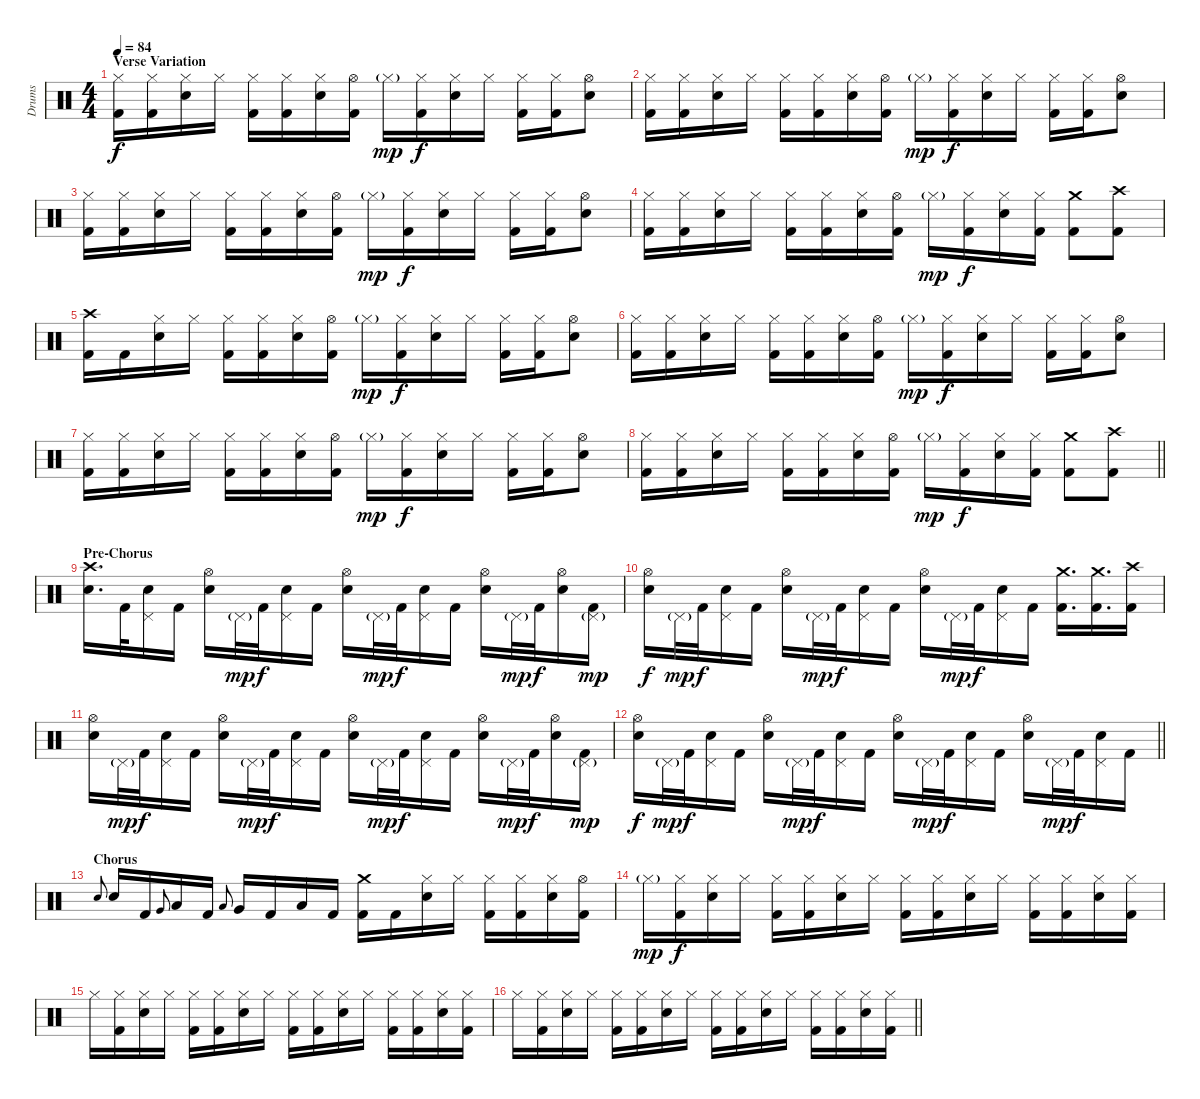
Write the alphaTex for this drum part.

\track ("Drums" "Drums") {instrument percussion}
\staff {score}
\articulation defaults
\ts (4 4)
\section ("" "Verse Variation")
\tempo 84
\clef neutral
\ks c
("Hi-Hat (closed)" "Kick (hit) 2").16{dy f} ("Hi-Hat (closed)" "Kick (hit) 2").16 ("Hi-Hat (closed)" "Snare (hit) 2").16 "Hi-Hat (closed)".16 ("Hi-Hat (closed)" "Kick (hit) 2").16 ("Hi-Hat (closed)" "Kick (hit) 2").16 ("Hi-Hat (closed)" "Snare (hit) 2").16 ("Hi-Hat (open)" "Kick (hit) 2").16 "Hi-Hat (closed)"{g}.16{dy mp} ("Hi-Hat (closed)" "Kick (hit) 2").16{dy f} ("Hi-Hat (closed)" "Snare (hit) 2").16 "Hi-Hat (closed)".16 ("Hi-Hat (closed)" "Kick (hit) 2").16 ("Hi-Hat (closed)" "Kick (hit) 2").16 ("Hi-Hat (open)" "Snare (hit) 2").8 |
("Hi-Hat (closed)" "Kick (hit) 2").16 ("Hi-Hat (closed)" "Kick (hit) 2").16 ("Hi-Hat (closed)" "Snare (hit) 2").16 "Hi-Hat (closed)".16 ("Hi-Hat (closed)" "Kick (hit) 2").16 ("Hi-Hat (closed)" "Kick (hit) 2").16 ("Hi-Hat (closed)" "Snare (hit) 2").16 ("Hi-Hat (open)" "Kick (hit) 2").16 "Hi-Hat (closed)"{g}.16{dy mp} ("Hi-Hat (closed)" "Kick (hit) 2").16{dy f} ("Hi-Hat (closed)" "Snare (hit) 2").16 "Hi-Hat (closed)".16 ("Hi-Hat (closed)" "Kick (hit) 2").16 ("Hi-Hat (closed)" "Kick (hit) 2").16 ("Hi-Hat (open)" "Snare (hit) 2").8 |
("Hi-Hat (closed)" "Kick (hit) 2").16 ("Hi-Hat (closed)" "Kick (hit) 2").16 ("Hi-Hat (closed)" "Snare (hit) 2").16 "Hi-Hat (closed)".16 ("Hi-Hat (closed)" "Kick (hit) 2").16 ("Hi-Hat (closed)" "Kick (hit) 2").16 ("Hi-Hat (closed)" "Snare (hit) 2").16 ("Hi-Hat (open)" "Kick (hit) 2").16 "Hi-Hat (closed)"{g}.16{dy mp} ("Hi-Hat (closed)" "Kick (hit) 2").16{dy f} ("Hi-Hat (closed)" "Snare (hit) 2").16 "Hi-Hat (closed)".16 ("Hi-Hat (closed)" "Kick (hit) 2").16 ("Hi-Hat (closed)" "Kick (hit) 2").16 ("Hi-Hat (open)" "Snare (hit) 2").8 |
("Hi-Hat (closed)" "Kick (hit) 2").16 ("Hi-Hat (closed)" "Kick (hit) 2").16 ("Hi-Hat (closed)" "Snare (hit) 2").16 "Hi-Hat (closed)".16 ("Hi-Hat (closed)" "Kick (hit) 2").16 ("Hi-Hat (closed)" "Kick (hit) 2").16 ("Hi-Hat (closed)" "Snare (hit) 2").16 ("Hi-Hat (open)" "Kick (hit) 2").16 "Hi-Hat (closed)"{g}.16{dy mp} ("Hi-Hat (closed)" "Kick (hit) 2").16{dy f} ("Hi-Hat (closed)" "Snare (hit) 2").16 ("Hi-Hat (closed)" "Kick (hit) 2").16 ("Crash medium (hit)" "Kick (hit) 2").8 ("Crash high (hit)" "Kick (hit) 2").8 |
("Crash high (hit)" "Kick (hit) 2").16 "Kick (hit) 2".16 ("Hi-Hat (closed)" "Snare (hit) 2").16 "Hi-Hat (closed)".16 ("Hi-Hat (closed)" "Kick (hit) 2").16 ("Hi-Hat (closed)" "Kick (hit) 2").16 ("Hi-Hat (closed)" "Snare (hit) 2").16 ("Hi-Hat (open)" "Kick (hit) 2").16 "Hi-Hat (closed)"{g}.16{dy mp} ("Hi-Hat (closed)" "Kick (hit) 2").16{dy f} ("Hi-Hat (closed)" "Snare (hit) 2").16 "Hi-Hat (closed)".16 ("Hi-Hat (closed)" "Kick (hit) 2").16 ("Hi-Hat (closed)" "Kick (hit) 2").16 ("Hi-Hat (open)" "Snare (hit) 2").8 |
("Hi-Hat (closed)" "Kick (hit) 2").16 ("Hi-Hat (closed)" "Kick (hit) 2").16 ("Hi-Hat (closed)" "Snare (hit) 2").16 "Hi-Hat (closed)".16 ("Hi-Hat (closed)" "Kick (hit) 2").16 ("Hi-Hat (closed)" "Kick (hit) 2").16 ("Hi-Hat (closed)" "Snare (hit) 2").16 ("Hi-Hat (open)" "Kick (hit) 2").16 "Hi-Hat (closed)"{g}.16{dy mp} ("Hi-Hat (closed)" "Kick (hit) 2").16{dy f} ("Hi-Hat (closed)" "Snare (hit) 2").16 "Hi-Hat (closed)".16 ("Hi-Hat (closed)" "Kick (hit) 2").16 ("Hi-Hat (closed)" "Kick (hit) 2").16 ("Hi-Hat (open)" "Snare (hit) 2").8 |
("Hi-Hat (closed)" "Kick (hit) 2").16 ("Hi-Hat (closed)" "Kick (hit) 2").16 ("Hi-Hat (closed)" "Snare (hit) 2").16 "Hi-Hat (closed)".16 ("Hi-Hat (closed)" "Kick (hit) 2").16 ("Hi-Hat (closed)" "Kick (hit) 2").16 ("Hi-Hat (closed)" "Snare (hit) 2").16 ("Hi-Hat (open)" "Kick (hit) 2").16 "Hi-Hat (closed)"{g}.16{dy mp} ("Hi-Hat (closed)" "Kick (hit) 2").16{dy f} ("Hi-Hat (closed)" "Snare (hit) 2").16 "Hi-Hat (closed)".16 ("Hi-Hat (closed)" "Kick (hit) 2").16 ("Hi-Hat (closed)" "Kick (hit) 2").16 ("Hi-Hat (open)" "Snare (hit) 2").8 |
\barLineRight lightlight
("Hi-Hat (closed)" "Kick (hit) 2").16 ("Hi-Hat (closed)" "Kick (hit) 2").16 ("Hi-Hat (closed)" "Snare (hit) 2").16 "Hi-Hat (closed)".16 ("Hi-Hat (closed)" "Kick (hit) 2").16 ("Hi-Hat (closed)" "Kick (hit) 2").16 ("Hi-Hat (closed)" "Snare (hit) 2").16 ("Hi-Hat (open)" "Kick (hit) 2").16 "Hi-Hat (closed)"{g}.16{dy mp} ("Hi-Hat (closed)" "Kick (hit) 2").16{dy f} ("Hi-Hat (closed)" "Snare (hit) 2").16 ("Hi-Hat (closed)" "Kick (hit) 2").16 ("Crash medium (hit)" "Kick (hit) 2").8 ("Crash high (hit)" "Kick (hit) 2").8 |
\section ("" "Pre-Chorus")
("Crash high (hit)" "Snare (hit) 2").16{d} "Kick (hit) 2".32 ("Pedal Hi-Hat (hit)" "Snare (hit) 2").16 "Kick (hit) 2".16 ("Hi-Hat (open)" "Snare (hit) 2").16 "Pedal Hi-Hat (hit)"{g}.32{dy mp} "Kick (hit) 2".32{dy f} ("Pedal Hi-Hat (hit)" "Snare (hit) 2").16 "Kick (hit) 2".16 ("Hi-Hat (open)" "Snare (hit) 2").16 "Pedal Hi-Hat (hit)"{g}.32{dy mp} "Kick (hit) 2".32{dy f} ("Pedal Hi-Hat (hit)" "Snare (hit) 2").16 "Kick (hit) 2".16 ("Hi-Hat (open)" "Snare (hit) 2").16 "Pedal Hi-Hat (hit)"{g}.32{dy mp} "Kick (hit) 2".32{dy f} ("Hi-Hat (open)" "Snare (hit) 2").16 ("Pedal Hi-Hat (hit)"{g} "Kick (hit) 2").16{dy mp} |
("Hi-Hat (open)" "Snare (hit) 2").16{dy f} "Pedal Hi-Hat (hit)"{g}.32{dy mp} "Kick (hit) 2".32{dy f} ("Pedal Hi-Hat (hit)" "Snare (hit) 2").16 "Kick (hit) 2".16 ("Hi-Hat (open)" "Snare (hit) 2").16 "Pedal Hi-Hat (hit)"{g}.32{dy mp} "Kick (hit) 2".32{dy f} ("Pedal Hi-Hat (hit)" "Snare (hit) 2").16 "Kick (hit) 2".16 ("Hi-Hat (open)" "Snare (hit) 2").16 "Pedal Hi-Hat (hit)"{g}.32{dy mp} "Kick (hit) 2".32{dy f} ("Pedal Hi-Hat (hit)" "Snare (hit) 2").16 "Kick (hit) 2".16 ("Crash medium (hit)" "Kick (hit) 2").16{d} ("Crash medium (hit)" "Kick (hit) 2").16{d} ("Crash high (hit)" "Kick (hit) 2").16 |
("Hi-Hat (open)" "Snare (hit) 2").16 "Pedal Hi-Hat (hit)"{g}.32{dy mp} "Kick (hit) 2".32{dy f} ("Pedal Hi-Hat (hit)" "Snare (hit) 2").16 "Kick (hit) 2".16 ("Hi-Hat (open)" "Snare (hit) 2").16 "Pedal Hi-Hat (hit)"{g}.32{dy mp} "Kick (hit) 2".32{dy f} ("Pedal Hi-Hat (hit)" "Snare (hit) 2").16 "Kick (hit) 2".16 ("Hi-Hat (open)" "Snare (hit) 2").16 "Pedal Hi-Hat (hit)"{g}.32{dy mp} "Kick (hit) 2".32{dy f} ("Pedal Hi-Hat (hit)" "Snare (hit) 2").16 "Kick (hit) 2".16 ("Hi-Hat (open)" "Snare (hit) 2").16 "Pedal Hi-Hat (hit)"{g}.32{dy mp} "Kick (hit) 2".32{dy f} ("Hi-Hat (open)" "Snare (hit) 2").16 ("Pedal Hi-Hat (hit)"{g} "Kick (hit) 2").16{dy mp} |
\barLineRight lightlight
("Hi-Hat (open)" "Snare (hit) 2").16{dy f} "Pedal Hi-Hat (hit)"{g}.32{dy mp} "Kick (hit) 2".32{dy f} ("Pedal Hi-Hat (hit)" "Snare (hit) 2").16 "Kick (hit) 2".16 ("Hi-Hat (open)" "Snare (hit) 2").16 "Pedal Hi-Hat (hit)"{g}.32{dy mp} "Kick (hit) 2".32{dy f} ("Pedal Hi-Hat (hit)" "Snare (hit) 2").16 "Kick (hit) 2".16 ("Hi-Hat (open)" "Snare (hit) 2").16 "Pedal Hi-Hat (hit)"{g}.32{dy mp} "Kick (hit) 2".32{dy f} ("Pedal Hi-Hat (hit)" "Snare (hit) 2").16 "Kick (hit) 2".16 ("Hi-Hat (open)" "Snare (hit) 2").16 "Pedal Hi-Hat (hit)"{g}.32{dy mp} "Kick (hit) 2".32{dy f} ("Pedal Hi-Hat (hit)" "Snare (hit) 2").16 "Kick (hit) 2".16 |
\section ("" "Chorus")
"Snare (hit) 2".8{gr onbeat} "Snare (hit) 2".16 "Kick (hit) 2".16 "Very Low Tom (hit)".8{gr onbeat} "Low Tom (hit)".16 "Kick (hit) 2".16 "Low Floor Tom (hit)".8{gr onbeat} "Very Low Tom (hit)".16 "Kick (hit) 2".16 "Low Floor Tom (hit)".16 "Kick (hit) 2".16 ("Crash medium (hit)" "Kick (hit) 2").16 "Kick (hit) 2".16 ("Hi-Hat (closed)" "Snare (hit) 2").16 "Hi-Hat (closed)".16 ("Hi-Hat (closed)" "Kick (hit) 2").16 ("Hi-Hat (closed)" "Kick (hit) 2").16 ("Hi-Hat (closed)" "Snare (hit) 2").16 ("Hi-Hat (open)" "Kick (hit) 2").16 |
"Hi-Hat (closed)"{g}.16{dy mp} ("Hi-Hat (closed)" "Kick (hit) 2").16{dy f} ("Hi-Hat (closed)" "Snare (hit) 2").16 "Hi-Hat (closed)".16 ("Hi-Hat (closed)" "Kick (hit) 2").16 ("Hi-Hat (closed)" "Kick (hit) 2").16 ("Hi-Hat (closed)" "Snare (hit) 2").16 "Hi-Hat (closed)".16 ("Hi-Hat (closed)" "Kick (hit) 2").16 ("Hi-Hat (closed)" "Kick (hit) 2").16 ("Hi-Hat (closed)" "Snare (hit) 2").16 "Hi-Hat (closed)".16 ("Hi-Hat (closed)" "Kick (hit) 2").16 ("Hi-Hat (closed)" "Kick (hit) 2").16 ("Hi-Hat (closed)" "Snare (hit) 2").16 ("Hi-Hat (closed)" "Kick (hit) 2").16 |
"Hi-Hat (closed)".16 ("Hi-Hat (closed)" "Kick (hit) 2").16 ("Hi-Hat (closed)" "Snare (hit) 2").16 "Hi-Hat (closed)".16 ("Hi-Hat (closed)" "Kick (hit) 2").16 ("Hi-Hat (closed)" "Kick (hit) 2").16 ("Hi-Hat (closed)" "Snare (hit) 2").16 "Hi-Hat (closed)".16 ("Hi-Hat (closed)" "Kick (hit) 2").16 ("Hi-Hat (closed)" "Kick (hit) 2").16 ("Hi-Hat (closed)" "Snare (hit) 2").16 "Hi-Hat (closed)".16 ("Hi-Hat (closed)" "Kick (hit) 2").16 ("Hi-Hat (closed)" "Kick (hit) 2").16 ("Hi-Hat (closed)" "Snare (hit) 2").16 ("Hi-Hat (closed)" "Kick (hit) 2").16 |
\barLineRight lightlight "Hi-Hat (closed)".16
("Hi-Hat (closed)" "Kick (hit) 2").16 ("Hi-Hat (closed)" "Snare (hit) 2").16 "Hi-Hat (closed)".16 ("Hi-Hat (closed)" "Kick (hit) 2").16 ("Hi-Hat (closed)" "Kick (hit) 2").16 ("Hi-Hat (closed)" "Snare (hit) 2").16 "Hi-Hat (closed)".16 ("Hi-Hat (closed)" "Kick (hit) 2").16 ("Hi-Hat (closed)" "Kick (hit) 2").16 ("Hi-Hat (closed)" "Snare (hit) 2").16 "Hi-Hat (closed)".16 ("Hi-Hat (closed)" "Kick (hit) 2").16 ("Hi-Hat (closed)" "Kick (hit) 2").16 ("Hi-Hat (closed)" "Snare (hit) 2").16 ("Hi-Hat (closed)" "Kick (hit) 2").16
